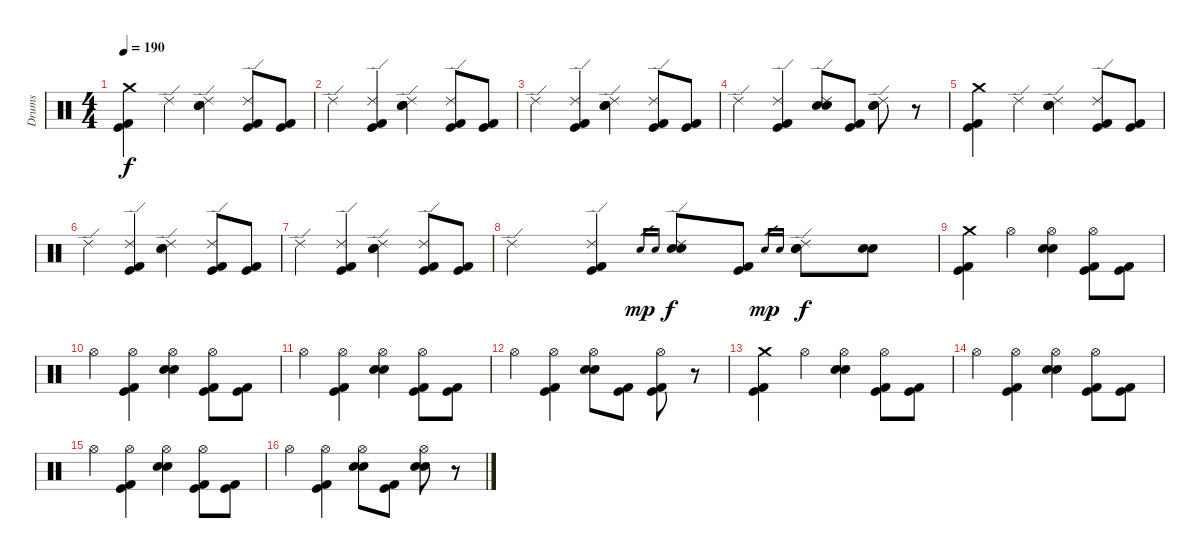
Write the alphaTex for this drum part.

\track ("Drums" "Drums") {instrument percussion}
\staff {score}
\articulation defaults
\ts (4 4)
\tempo 190
\clef neutral
\ks c
("Crash medium (hit)" "Kick (hit) 2" "Kick (hit)").4{dy f} "Ride (edge) 2".4 ("Ride (edge) 2" "Snare (hit) 2" "Snare (hit) 2").4 ("Ride (edge) 2" "Kick (hit) 2" "Kick (hit)").8 ("Kick (hit) 2" "Kick (hit)").8 |
"Ride (edge) 2".4 ("Ride (edge) 2" "Kick (hit) 2" "Kick (hit)").4 ("Ride (edge) 2" "Snare (hit) 2" "Snare (hit) 2").4 ("Ride (edge) 2" "Kick (hit) 2" "Kick (hit)").8 ("Kick (hit) 2" "Kick (hit)").8 |
"Ride (edge) 2".4 ("Ride (edge) 2" "Kick (hit) 2" "Kick (hit)").4 ("Ride (edge) 2" "Snare (hit) 2" "Snare (hit) 2").4 ("Ride (edge) 2" "Kick (hit) 2" "Kick (hit)").8 ("Kick (hit) 2" "Kick (hit)").8 |
"Ride (edge) 2".4 ("Ride (edge) 2" "Kick (hit) 2" "Kick (hit)").4 ("Ride (edge) 2" "Snare (hit) 2" "Snare (hit) 2").8 ("Kick (hit) 2" "Kick (hit)").8 ("Ride (edge) 2" "Snare (hit) 2" "Snare (hit) 2").8 r.8 |
("Crash medium (hit)" "Kick (hit) 2" "Kick (hit)").4 "Ride (edge) 2".4 ("Ride (edge) 2" "Snare (hit) 2" "Snare (hit) 2").4 ("Ride (edge) 2" "Kick (hit) 2" "Kick (hit)").8 ("Kick (hit) 2" "Kick (hit)").8 |
"Ride (edge) 2".4 ("Ride (edge) 2" "Kick (hit) 2" "Kick (hit)").4 ("Ride (edge) 2" "Snare (hit) 2" "Snare (hit) 2").4 ("Ride (edge) 2" "Kick (hit) 2" "Kick (hit)").8 ("Kick (hit) 2" "Kick (hit)").8 |
"Ride (edge) 2".4 ("Ride (edge) 2" "Kick (hit) 2" "Kick (hit)").4 ("Ride (edge) 2" "Snare (hit) 2" "Snare (hit) 2").4 ("Ride (edge) 2" "Kick (hit) 2" "Kick (hit)").8 ("Kick (hit) 2" "Kick (hit)").8 |
"Ride (edge) 2".4 ("Ride (edge) 2" "Kick (hit) 2" "Kick (hit)").4 "Snare (hit) 2".16{gr dy mp} "Snare (hit) 2".16{gr} ("Ride (edge) 2" "Snare (hit) 2" "Snare (hit) 2").8{dy f} ("Kick (hit) 2" "Kick (hit)").8 "Snare (hit) 2".16{gr dy mp} "Snare (hit) 2".16{gr} ("Ride (edge) 2" "Snare (hit) 2" "Snare (hit) 2").8{dy f} ("Snare (hit) 2" "Snare (hit) 2").8 |
("Crash medium (hit)" "Kick (hit) 2" "Kick (hit)").4 "Hi-Hat (open)".4 ("Hi-Hat (open)" "Snare (hit) 2" "Snare (hit) 2").4 ("Hi-Hat (open)" "Kick (hit) 2" "Kick (hit)").8 ("Kick (hit) 2" "Kick (hit)").8 |
"Hi-Hat (open)".4 ("Hi-Hat (open)" "Kick (hit) 2" "Kick (hit)").4 ("Hi-Hat (open)" "Snare (hit) 2" "Snare (hit) 2").4 ("Hi-Hat (open)" "Kick (hit) 2" "Kick (hit)").8 ("Kick (hit) 2" "Kick (hit)").8 |
"Hi-Hat (open)".4 ("Hi-Hat (open)" "Kick (hit) 2" "Kick (hit)").4 ("Hi-Hat (open)" "Snare (hit) 2" "Snare (hit) 2").4 ("Hi-Hat (open)" "Kick (hit) 2" "Kick (hit)").8 ("Kick (hit) 2" "Kick (hit)").8 |
"Hi-Hat (open)".4 ("Hi-Hat (open)" "Kick (hit) 2" "Kick (hit)").4 ("Hi-Hat (open)" "Snare (hit) 2" "Snare (hit) 2").8 ("Kick (hit) 2" "Kick (hit)").8 ("Hi-Hat (open)" "Kick (hit) 2" "Kick (hit)").8 r.8 |
("Crash medium (hit)" "Kick (hit) 2" "Kick (hit)").4 "Hi-Hat (open)".4 ("Hi-Hat (open)" "Snare (hit) 2" "Snare (hit) 2").4 ("Hi-Hat (open)" "Kick (hit) 2" "Kick (hit)").8 ("Kick (hit) 2" "Kick (hit)").8 |
"Hi-Hat (open)".4 ("Hi-Hat (open)" "Kick (hit) 2" "Kick (hit)").4 ("Hi-Hat (open)" "Snare (hit) 2" "Snare (hit) 2").4 ("Hi-Hat (open)" "Kick (hit) 2" "Kick (hit)").8 ("Kick (hit) 2" "Kick (hit)").8 |
"Hi-Hat (open)".4 ("Hi-Hat (open)" "Kick (hit) 2" "Kick (hit)").4 ("Hi-Hat (open)" "Snare (hit) 2" "Snare (hit) 2").4 ("Hi-Hat (open)" "Kick (hit) 2" "Kick (hit)").8 ("Kick (hit) 2" "Kick (hit)").8 |
"Hi-Hat (open)".4 ("Hi-Hat (open)" "Kick (hit) 2" "Kick (hit)").4 ("Hi-Hat (open)" "Snare (hit) 2" "Snare (hit) 2").8 ("Kick (hit) 2" "Kick (hit)").8 ("Hi-Hat (open)" "Snare (hit) 2" "Snare (hit) 2").8 r.8
